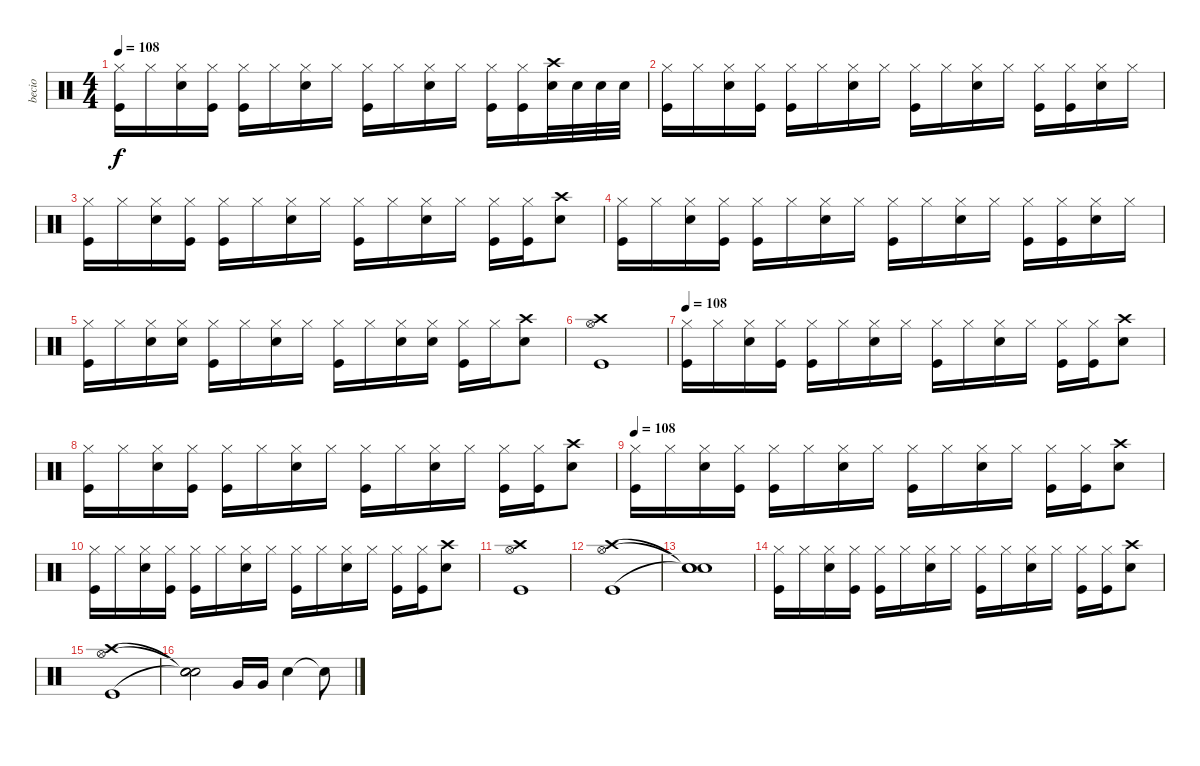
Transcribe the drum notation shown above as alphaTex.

\track ("becio" "becio") {instrument percussion}
\staff {score}
\articulation defaults
\ts (4 4)
\tempo 108
\clef neutral
\ks c
("Kick (hit)" "Hi-Hat (closed)").16{dy f} "Hi-Hat (closed)".16 ("Electric Snare (hit)" "Hi-Hat (closed)").16 ("Kick (hit)" "Hi-Hat (closed)").16 ("Kick (hit)" "Hi-Hat (closed)").16 "Hi-Hat (closed)".16 ("Electric Snare (hit)" "Hi-Hat (closed)").16 "Hi-Hat (closed)".16 ("Kick (hit)" "Hi-Hat (closed)").16 "Hi-Hat (closed)".16 ("Electric Snare (hit)" "Hi-Hat (closed)").16 "Hi-Hat (closed)".16 ("Kick (hit)" "Hi-Hat (closed)").16 ("Kick (hit)" "Hi-Hat (closed)").16 ("Electric Snare (hit)" "Crash high (hit)").32 "Electric Snare (hit)".32 "Electric Snare (hit)".32 "Electric Snare (hit)".32 |
("Kick (hit)" "Hi-Hat (closed)").16 "Hi-Hat (closed)".16 ("Electric Snare (hit)" "Hi-Hat (closed)").16 ("Kick (hit)" "Hi-Hat (closed)").16 ("Kick (hit)" "Hi-Hat (closed)").16 "Hi-Hat (closed)".16 ("Electric Snare (hit)" "Hi-Hat (closed)").16 "Hi-Hat (closed)".16 ("Kick (hit)" "Hi-Hat (closed)").16 "Hi-Hat (closed)".16 ("Electric Snare (hit)" "Hi-Hat (closed)").16 "Hi-Hat (closed)".16 ("Kick (hit)" "Hi-Hat (closed)").16 ("Kick (hit)" "Hi-Hat (closed)").16 ("Electric Snare (hit)" "Hi-Hat (closed)").16 "Hi-Hat (closed)".16 |
("Kick (hit)" "Hi-Hat (closed)").16 "Hi-Hat (closed)".16 ("Electric Snare (hit)" "Hi-Hat (closed)").16 ("Kick (hit)" "Hi-Hat (closed)").16 ("Kick (hit)" "Hi-Hat (closed)").16 "Hi-Hat (closed)".16 ("Electric Snare (hit)" "Hi-Hat (closed)").16 "Hi-Hat (closed)".16 ("Kick (hit)" "Hi-Hat (closed)").16 "Hi-Hat (closed)".16 ("Electric Snare (hit)" "Hi-Hat (closed)").16 "Hi-Hat (closed)".16 ("Kick (hit)" "Hi-Hat (closed)").16 ("Kick (hit)" "Hi-Hat (closed)").16 ("Electric Snare (hit)" "Crash high (hit)").8 |
("Kick (hit)" "Hi-Hat (closed)").16 "Hi-Hat (closed)".16 ("Electric Snare (hit)" "Hi-Hat (closed)").16 ("Kick (hit)" "Hi-Hat (closed)").16 ("Kick (hit)" "Hi-Hat (closed)").16 "Hi-Hat (closed)".16 ("Electric Snare (hit)" "Hi-Hat (closed)").16 "Hi-Hat (closed)".16 ("Kick (hit)" "Hi-Hat (closed)").16 "Hi-Hat (closed)".16 ("Electric Snare (hit)" "Hi-Hat (closed)").16 "Hi-Hat (closed)".16 ("Kick (hit)" "Hi-Hat (closed)").16 ("Kick (hit)" "Hi-Hat (closed)").16 ("Electric Snare (hit)" "Hi-Hat (closed)").16 "Hi-Hat (closed)".16 |
("Kick (hit)" "Hi-Hat (closed)").16 "Hi-Hat (closed)".16 ("Electric Snare (hit)" "Hi-Hat (closed)").16 ("Electric Snare (hit)" "Hi-Hat (closed)").16 ("Kick (hit)" "Hi-Hat (closed)").16 "Hi-Hat (closed)".16 ("Electric Snare (hit)" "Hi-Hat (closed)").16 "Hi-Hat (closed)".16 ("Kick (hit)" "Hi-Hat (closed)").16 "Hi-Hat (closed)".16 ("Electric Snare (hit)" "Hi-Hat (closed)").16 ("Electric Snare (hit)" "Hi-Hat (closed)").16 ("Kick (hit)" "Hi-Hat (closed)").16 "Hi-Hat (closed)".16 ("Electric Snare (hit)" "Crash high (hit)").8 |
("Kick (hit)" "Hi-Hat (open)" "Crash high (hit)").1 |
\tempo 108
("Kick (hit)" "Hi-Hat (closed)").16 "Hi-Hat (closed)".16 ("Electric Snare (hit)" "Hi-Hat (closed)").16 ("Kick (hit)" "Hi-Hat (closed)").16 ("Kick (hit)" "Hi-Hat (closed)").16 "Hi-Hat (closed)".16 ("Electric Snare (hit)" "Hi-Hat (closed)").16 "Hi-Hat (closed)".16 ("Kick (hit)" "Hi-Hat (closed)").16 "Hi-Hat (closed)".16 ("Electric Snare (hit)" "Hi-Hat (closed)").16 "Hi-Hat (closed)".16 ("Kick (hit)" "Hi-Hat (closed)").16 ("Kick (hit)" "Hi-Hat (closed)").16 ("Electric Snare (hit)" "Crash high (hit)").8 |
("Kick (hit)" "Hi-Hat (closed)").16 "Hi-Hat (closed)".16 ("Electric Snare (hit)" "Hi-Hat (closed)").16 ("Kick (hit)" "Hi-Hat (closed)").16 ("Kick (hit)" "Hi-Hat (closed)").16 "Hi-Hat (closed)".16 ("Electric Snare (hit)" "Hi-Hat (closed)").16 "Hi-Hat (closed)".16 ("Kick (hit)" "Hi-Hat (closed)").16 "Hi-Hat (closed)".16 ("Electric Snare (hit)" "Hi-Hat (closed)").16 "Hi-Hat (closed)".16 ("Kick (hit)" "Hi-Hat (closed)").16 ("Kick (hit)" "Hi-Hat (closed)").16 ("Electric Snare (hit)" "Crash high (hit)").8 |
\tempo 108
("Kick (hit)" "Hi-Hat (closed)").16 "Hi-Hat (closed)".16 ("Electric Snare (hit)" "Hi-Hat (closed)").16 ("Kick (hit)" "Hi-Hat (closed)").16 ("Kick (hit)" "Hi-Hat (closed)").16 "Hi-Hat (closed)".16 ("Electric Snare (hit)" "Hi-Hat (closed)").16 "Hi-Hat (closed)".16 ("Kick (hit)" "Hi-Hat (closed)").16 "Hi-Hat (closed)".16 ("Electric Snare (hit)" "Hi-Hat (closed)").16 "Hi-Hat (closed)".16 ("Kick (hit)" "Hi-Hat (closed)").16 ("Kick (hit)" "Hi-Hat (closed)").16 ("Electric Snare (hit)" "Crash high (hit)").8 |
("Kick (hit)" "Hi-Hat (closed)").16 "Hi-Hat (closed)".16 ("Electric Snare (hit)" "Hi-Hat (closed)").16 ("Kick (hit)" "Hi-Hat (closed)").16 ("Kick (hit)" "Hi-Hat (closed)").16 "Hi-Hat (closed)".16 ("Electric Snare (hit)" "Hi-Hat (closed)").16 "Hi-Hat (closed)".16 ("Kick (hit)" "Hi-Hat (closed)").16 "Hi-Hat (closed)".16 ("Electric Snare (hit)" "Hi-Hat (closed)").16 "Hi-Hat (closed)".16 ("Kick (hit)" "Hi-Hat (closed)").16 ("Kick (hit)" "Hi-Hat (closed)").16 ("Electric Snare (hit)" "Crash high (hit)").8 |
("Kick (hit)" "Hi-Hat (open)" "Crash high (hit)").1 |
("Kick (hit)" "Hi-Hat (open)" "Crash high (hit)").1 |
("Snare (hit)"{t} "Snare (hit)"{t} "Snare (hit)"{t}).1 |
("Kick (hit)" "Hi-Hat (closed)").16 "Hi-Hat (closed)".16 ("Electric Snare (hit)" "Hi-Hat (closed)").16 ("Kick (hit)" "Hi-Hat (closed)").16 ("Kick (hit)" "Hi-Hat (closed)").16 "Hi-Hat (closed)".16 ("Electric Snare (hit)" "Hi-Hat (closed)").16 "Hi-Hat (closed)".16 ("Kick (hit)" "Hi-Hat (closed)").16 "Hi-Hat (closed)".16 ("Electric Snare (hit)" "Hi-Hat (closed)").16 "Hi-Hat (closed)".16 ("Kick (hit)" "Hi-Hat (closed)").16 ("Kick (hit)" "Hi-Hat (closed)").16 ("Electric Snare (hit)" "Crash high (hit)").8 |
("Kick (hit)" "Hi-Hat (open)" "Crash high (hit)").1 |
("Snare (hit)"{t} "Snare (hit)"{t} "Snare (hit)"{t}).2 "Very Low Tom (hit)".16 "Very Low Tom (hit)".16 "Electric Snare (hit)".4 "Snare (hit)"{t}.8
